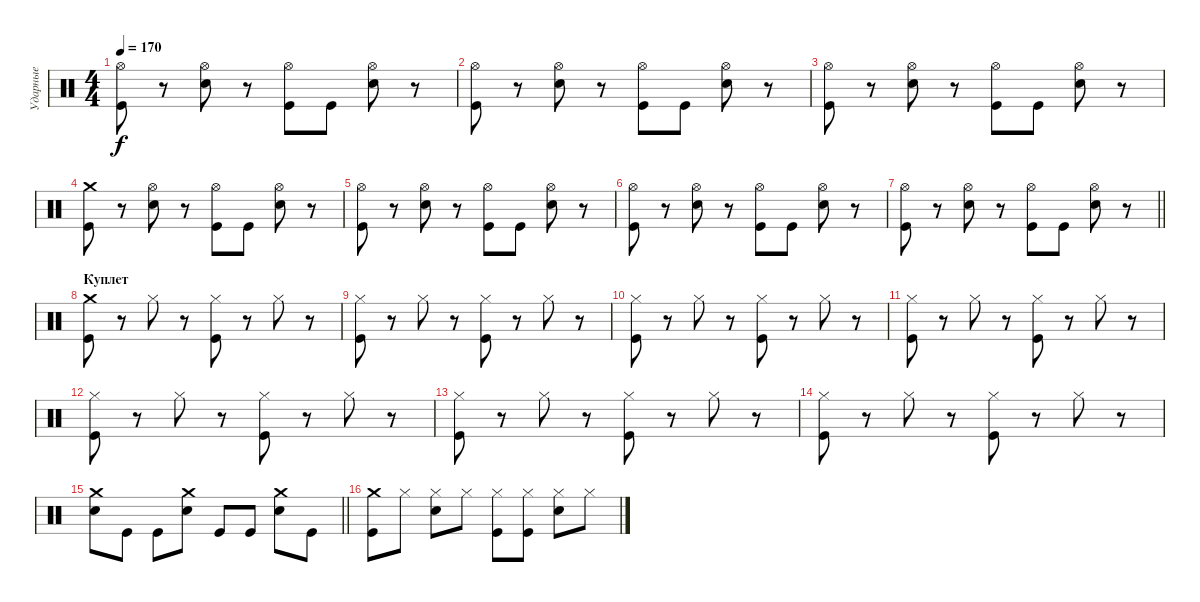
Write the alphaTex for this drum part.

\track ("Ударные" "Ударные") {instrument percussion}
\staff {score}
\articulation defaults
\ts (4 4)
\tempo 170
\clef neutral
\ks c
("Hi-Hat (open)" "Kick (hit)").8{dy f} r.8 ("Hi-Hat (open)" "Electric Snare (hit)").8 r.8 ("Hi-Hat (open)" "Kick (hit)").8 "Kick (hit)".8 ("Hi-Hat (open)" "Electric Snare (hit)").8 r.8 |
("Hi-Hat (open)" "Kick (hit)").8 r.8 ("Hi-Hat (open)" "Electric Snare (hit)").8 r.8 ("Hi-Hat (open)" "Kick (hit)").8 "Kick (hit)".8 ("Hi-Hat (open)" "Electric Snare (hit)").8 r.8 |
("Hi-Hat (open)" "Kick (hit)").8 r.8 ("Hi-Hat (open)" "Electric Snare (hit)").8 r.8 ("Hi-Hat (open)" "Kick (hit)").8 "Kick (hit)".8 ("Hi-Hat (open)" "Electric Snare (hit)").8 r.8 |
("Crash medium (hit)" "Kick (hit)").8 r.8 ("Hi-Hat (open)" "Electric Snare (hit)").8 r.8 ("Hi-Hat (open)" "Kick (hit)").8 "Kick (hit)".8 ("Hi-Hat (open)" "Electric Snare (hit)").8 r.8 |
("Hi-Hat (open)" "Kick (hit)").8 r.8 ("Hi-Hat (open)" "Electric Snare (hit)").8 r.8 ("Hi-Hat (open)" "Kick (hit)").8 "Kick (hit)".8 ("Hi-Hat (open)" "Electric Snare (hit)").8 r.8 |
("Hi-Hat (open)" "Kick (hit)").8 r.8 ("Hi-Hat (open)" "Electric Snare (hit)").8 r.8 ("Hi-Hat (open)" "Kick (hit)").8 "Kick (hit)".8 ("Hi-Hat (open)" "Electric Snare (hit)").8 r.8 |
\barLineRight lightlight
("Hi-Hat (open)" "Kick (hit)").8 r.8 ("Hi-Hat (open)" "Electric Snare (hit)").8 r.8 ("Hi-Hat (open)" "Kick (hit)").8 "Kick (hit)".8 ("Hi-Hat (open)" "Electric Snare (hit)").8 r.8 |
\section ("" "Куплет")
("Crash medium (hit)" "Kick (hit)").8 r.8 "Hi-Hat (closed)".8 r.8 ("Hi-Hat (closed)" "Kick (hit)").8 r.8 "Hi-Hat (closed)".8 r.8 |
("Hi-Hat (closed)" "Kick (hit)").8 r.8 "Hi-Hat (closed)".8 r.8 ("Hi-Hat (closed)" "Kick (hit)").8 r.8 "Hi-Hat (closed)".8 r.8 |
("Hi-Hat (closed)" "Kick (hit)").8 r.8 "Hi-Hat (closed)".8 r.8 ("Hi-Hat (closed)" "Kick (hit)").8 r.8 "Hi-Hat (closed)".8 r.8 |
("Hi-Hat (closed)" "Kick (hit)").8 r.8 "Hi-Hat (closed)".8 r.8 ("Hi-Hat (closed)" "Kick (hit)").8 r.8 "Hi-Hat (closed)".8 r.8 |
("Hi-Hat (closed)" "Kick (hit)").8 r.8 "Hi-Hat (closed)".8 r.8 ("Hi-Hat (closed)" "Kick (hit)").8 r.8 "Hi-Hat (closed)".8 r.8 |
("Hi-Hat (closed)" "Kick (hit)").8 r.8 "Hi-Hat (closed)".8 r.8 ("Hi-Hat (closed)" "Kick (hit)").8 r.8 "Hi-Hat (closed)".8 r.8 |
("Hi-Hat (closed)" "Kick (hit)").8 r.8 "Hi-Hat (closed)".8 r.8 ("Hi-Hat (closed)" "Kick (hit)").8 r.8 "Hi-Hat (closed)".8 r.8 |
\barLineRight lightlight
("Crash medium (hit)" "Electric Snare (hit)").8 "Kick (hit)".8 "Kick (hit)".8 ("Crash medium (hit)" "Electric Snare (hit)").8 "Kick (hit)".8 "Kick (hit)".8 ("Crash medium (hit)" "Electric Snare (hit)").8 "Kick (hit)".8 |
("Crash medium (hit)" "Kick (hit)").8 "Hi-Hat (closed)".8 ("Hi-Hat (closed)" "Electric Snare (hit)").8 "Hi-Hat (closed)".8 ("Hi-Hat (closed)" "Kick (hit)").8 ("Hi-Hat (closed)" "Kick (hit)").8 ("Hi-Hat (closed)" "Electric Snare (hit)").8 "Hi-Hat (closed)".8
